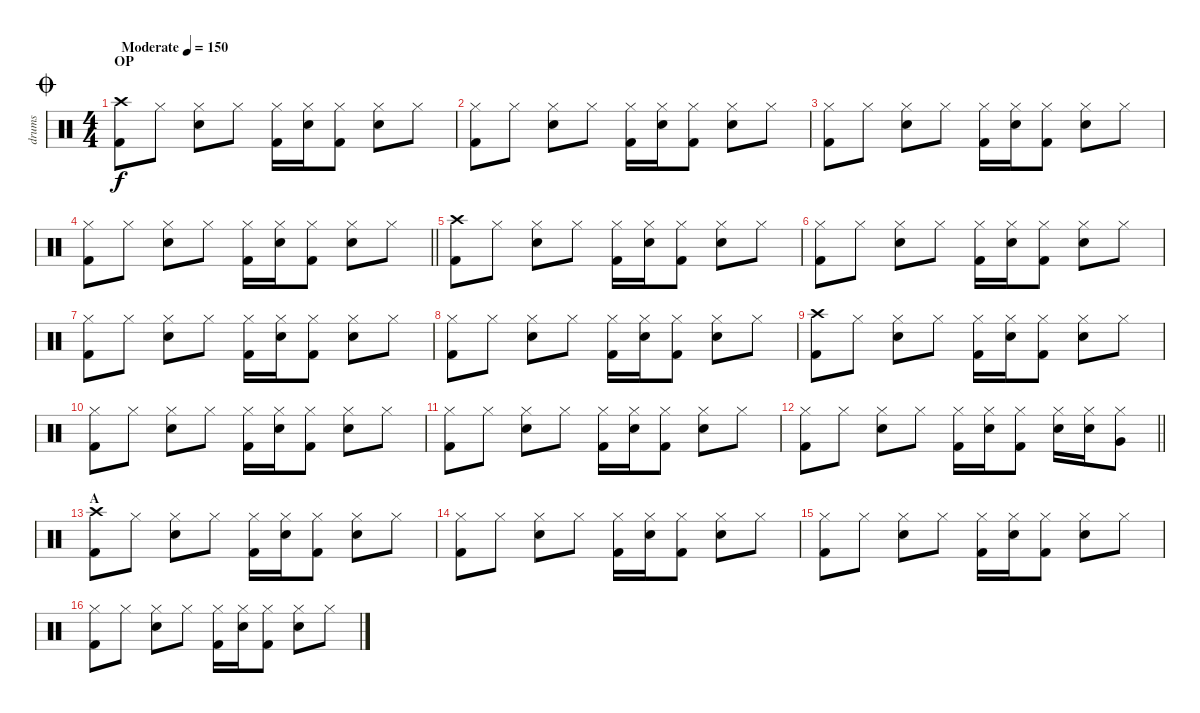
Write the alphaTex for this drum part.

\track ("drums" "drums") {instrument percussion}
\staff {score}
\articulation defaults
\ts (4 4)
\section ("" "OP")
\jump coda
\tempo (150 "Moderate")
\clef neutral
\ks c
("Crash high (hit)" "Kick (hit) 2").8{dy f} "Hi-Hat (closed)".8 ("Hi-Hat (closed)" "Electric Snare (hit)").8 "Hi-Hat (closed)".8 ("Hi-Hat (closed)" "Kick (hit) 2").16 ("Hi-Hat (closed)" "Electric Snare (hit)").16 ("Hi-Hat (closed)" "Kick (hit) 2").8 ("Hi-Hat (closed)" "Electric Snare (hit)").8 "Hi-Hat (closed)".8 |
("Hi-Hat (closed)" "Kick (hit) 2").8 "Hi-Hat (closed)".8 ("Hi-Hat (closed)" "Electric Snare (hit)").8 "Hi-Hat (closed)".8 ("Hi-Hat (closed)" "Kick (hit) 2").16 ("Hi-Hat (closed)" "Electric Snare (hit)").16 ("Hi-Hat (closed)" "Kick (hit) 2").8 ("Hi-Hat (closed)" "Electric Snare (hit)").8 "Hi-Hat (closed)".8 |
("Hi-Hat (closed)" "Kick (hit) 2").8 "Hi-Hat (closed)".8 ("Hi-Hat (closed)" "Electric Snare (hit)").8 "Hi-Hat (closed)".8 ("Hi-Hat (closed)" "Kick (hit) 2").16 ("Hi-Hat (closed)" "Electric Snare (hit)").16 ("Hi-Hat (closed)" "Kick (hit) 2").8 ("Hi-Hat (closed)" "Electric Snare (hit)").8 "Hi-Hat (closed)".8 |
\barLineRight lightlight
("Hi-Hat (closed)" "Kick (hit) 2").8 "Hi-Hat (closed)".8 ("Hi-Hat (closed)" "Electric Snare (hit)").8 "Hi-Hat (closed)".8 ("Hi-Hat (closed)" "Kick (hit) 2").16 ("Hi-Hat (closed)" "Electric Snare (hit)").16 ("Hi-Hat (closed)" "Kick (hit) 2").8 ("Hi-Hat (closed)" "Electric Snare (hit)").8 "Hi-Hat (closed)".8 |
("Crash high (hit)" "Kick (hit) 2").8 "Hi-Hat (closed)".8 ("Hi-Hat (closed)" "Electric Snare (hit)").8 "Hi-Hat (closed)".8 ("Hi-Hat (closed)" "Kick (hit) 2").16 ("Hi-Hat (closed)" "Electric Snare (hit)").16 ("Hi-Hat (closed)" "Kick (hit) 2").8 ("Hi-Hat (closed)" "Electric Snare (hit)").8 "Hi-Hat (closed)".8 |
("Hi-Hat (closed)" "Kick (hit) 2").8 "Hi-Hat (closed)".8 ("Hi-Hat (closed)" "Electric Snare (hit)").8 "Hi-Hat (closed)".8 ("Hi-Hat (closed)" "Kick (hit) 2").16 ("Hi-Hat (closed)" "Electric Snare (hit)").16 ("Hi-Hat (closed)" "Kick (hit) 2").8 ("Hi-Hat (closed)" "Electric Snare (hit)").8 "Hi-Hat (closed)".8 |
("Hi-Hat (closed)" "Kick (hit) 2").8 "Hi-Hat (closed)".8 ("Hi-Hat (closed)" "Electric Snare (hit)").8 "Hi-Hat (closed)".8 ("Hi-Hat (closed)" "Kick (hit) 2").16 ("Hi-Hat (closed)" "Electric Snare (hit)").16 ("Hi-Hat (closed)" "Kick (hit) 2").8 ("Hi-Hat (closed)" "Electric Snare (hit)").8 "Hi-Hat (closed)".8 |
("Hi-Hat (closed)" "Kick (hit) 2").8 "Hi-Hat (closed)".8 ("Hi-Hat (closed)" "Electric Snare (hit)").8 "Hi-Hat (closed)".8 ("Hi-Hat (closed)" "Kick (hit) 2").16 ("Hi-Hat (closed)" "Electric Snare (hit)").16 ("Hi-Hat (closed)" "Kick (hit) 2").8 ("Hi-Hat (closed)" "Electric Snare (hit)").8 "Hi-Hat (closed)".8 |
("Crash high (hit)" "Kick (hit) 2").8 "Hi-Hat (closed)".8 ("Hi-Hat (closed)" "Electric Snare (hit)").8 "Hi-Hat (closed)".8 ("Hi-Hat (closed)" "Kick (hit) 2").16 ("Hi-Hat (closed)" "Electric Snare (hit)").16 ("Hi-Hat (closed)" "Kick (hit) 2").8 ("Hi-Hat (closed)" "Electric Snare (hit)").8 "Hi-Hat (closed)".8 |
("Hi-Hat (closed)" "Kick (hit) 2").8 "Hi-Hat (closed)".8 ("Hi-Hat (closed)" "Electric Snare (hit)").8 "Hi-Hat (closed)".8 ("Hi-Hat (closed)" "Kick (hit) 2").16 ("Hi-Hat (closed)" "Electric Snare (hit)").16 ("Hi-Hat (closed)" "Kick (hit) 2").8 ("Hi-Hat (closed)" "Electric Snare (hit)").8 "Hi-Hat (closed)".8 |
("Hi-Hat (closed)" "Kick (hit) 2").8 "Hi-Hat (closed)".8 ("Hi-Hat (closed)" "Electric Snare (hit)").8 "Hi-Hat (closed)".8 ("Hi-Hat (closed)" "Kick (hit) 2").16 ("Hi-Hat (closed)" "Electric Snare (hit)").16 ("Hi-Hat (closed)" "Kick (hit) 2").8 ("Hi-Hat (closed)" "Electric Snare (hit)").8 "Hi-Hat (closed)".8 |
\barLineRight lightlight
("Hi-Hat (closed)" "Kick (hit) 2").8 "Hi-Hat (closed)".8 ("Hi-Hat (closed)" "Electric Snare (hit)").8 "Hi-Hat (closed)".8 ("Hi-Hat (closed)" "Kick (hit) 2").16 ("Hi-Hat (closed)" "Electric Snare (hit)").16 ("Hi-Hat (closed)" "Kick (hit) 2").8 ("Hi-Hat (closed)" "Electric Snare (hit)").16 ("Hi-Hat (closed)" "Electric Snare (hit)").16 ("Hi-Hat (closed)" "Very Low Tom (hit)").8 |
\section ("" "A")
("Crash high (hit)" "Kick (hit) 2").8 "Hi-Hat (closed)".8 ("Hi-Hat (closed)" "Electric Snare (hit)").8 "Hi-Hat (closed)".8 ("Hi-Hat (closed)" "Kick (hit) 2").16 ("Hi-Hat (closed)" "Electric Snare (hit)").16 ("Hi-Hat (closed)" "Kick (hit) 2").8 ("Hi-Hat (closed)" "Electric Snare (hit)").8 "Hi-Hat (closed)".8 |
("Hi-Hat (closed)" "Kick (hit) 2").8 "Hi-Hat (closed)".8 ("Hi-Hat (closed)" "Electric Snare (hit)").8 "Hi-Hat (closed)".8 ("Hi-Hat (closed)" "Kick (hit) 2").16 ("Hi-Hat (closed)" "Electric Snare (hit)").16 ("Hi-Hat (closed)" "Kick (hit) 2").8 ("Hi-Hat (closed)" "Electric Snare (hit)").8 "Hi-Hat (closed)".8 |
("Hi-Hat (closed)" "Kick (hit) 2").8 "Hi-Hat (closed)".8 ("Hi-Hat (closed)" "Electric Snare (hit)").8 "Hi-Hat (closed)".8 ("Hi-Hat (closed)" "Kick (hit) 2").16 ("Hi-Hat (closed)" "Electric Snare (hit)").16 ("Hi-Hat (closed)" "Kick (hit) 2").8 ("Hi-Hat (closed)" "Electric Snare (hit)").8 "Hi-Hat (closed)".8 |
("Hi-Hat (closed)" "Kick (hit) 2").8 "Hi-Hat (closed)".8 ("Hi-Hat (closed)" "Electric Snare (hit)").8 "Hi-Hat (closed)".8 ("Hi-Hat (closed)" "Kick (hit) 2").16 ("Hi-Hat (closed)" "Electric Snare (hit)").16 ("Hi-Hat (closed)" "Kick (hit) 2").8 ("Hi-Hat (closed)" "Electric Snare (hit)").8 "Hi-Hat (closed)".8
